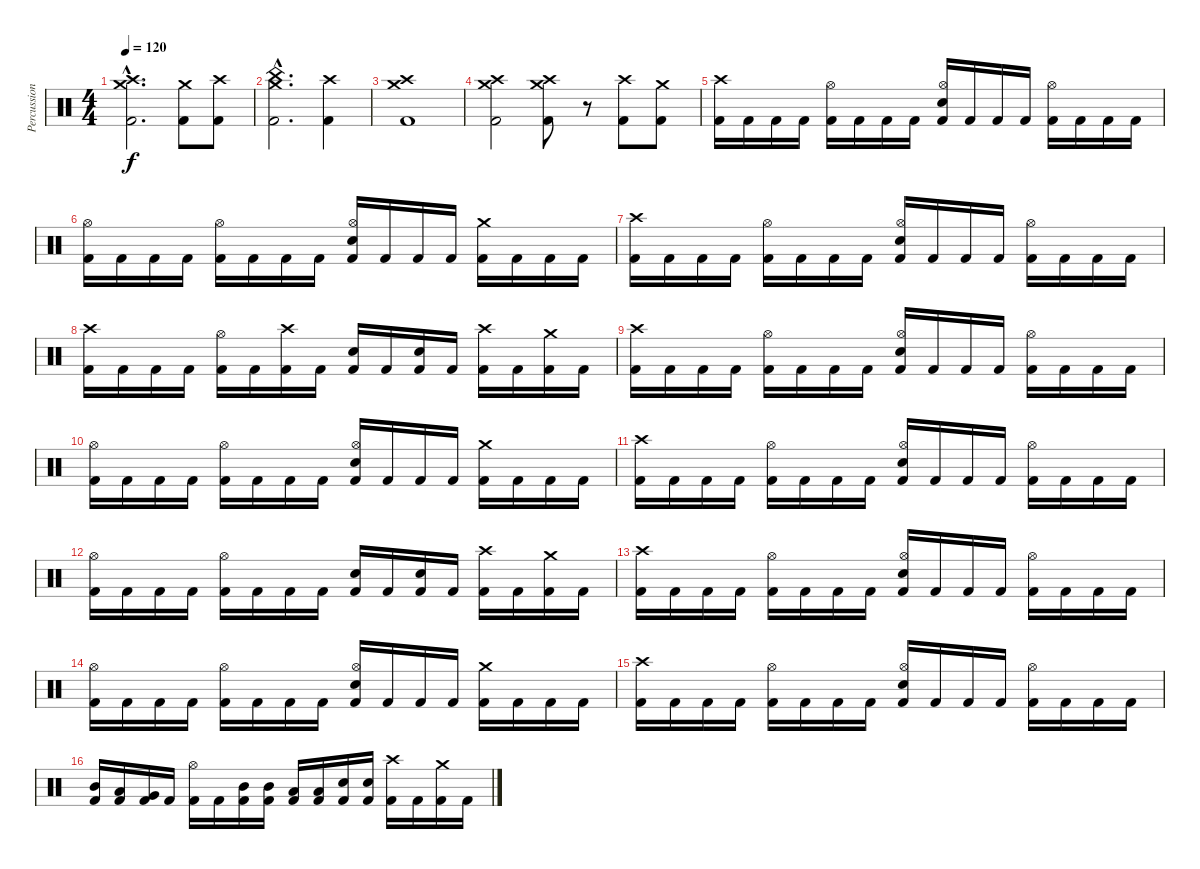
\track ("Percussion" "Percussion") {instrument percussion}
\staff {score}
\articulation defaults
\ts (4 4)
\tempo 120
\clef neutral
\ks c
("Crash medium (hit)"{hac} "Crash high (hit)"{hac} "Kick (hit) 2"{hac}).2{d dy f} ("Crash medium (hit)" "Kick (hit) 2").8 ("Crash high (hit)" "Kick (hit) 2").8 |
("China (hit)"{hac} "Crash medium (hit)"{hac} "Kick (hit) 2"{hac}).2{d} ("Crash high (hit)" "Kick (hit) 2").4 |
("Crash medium (hit)" "Crash high (hit)" "Kick (hit) 2").1 |
("Crash medium (hit)" "Crash high (hit)" "Kick (hit) 2").2 ("Crash medium (hit)" "Crash high (hit)" "Kick (hit) 2").8 r.8 ("Crash high (hit)" "Kick (hit) 2").8 ("Crash medium (hit)" "Kick (hit) 2").8 |
("Crash high (hit)" "Kick (hit) 2").16 "Kick (hit) 2".16 "Kick (hit) 2".16 "Kick (hit) 2".16 ("Hi-Hat (open)" "Kick (hit) 2").16 "Kick (hit) 2".16 "Kick (hit) 2".16 "Kick (hit) 2".16 ("Hi-Hat (open)" "Electric Snare (hit)" "Kick (hit) 2").16 "Kick (hit) 2".16 "Kick (hit) 2".16 "Kick (hit) 2".16 ("Hi-Hat (open)" "Kick (hit) 2").16 "Kick (hit) 2".16 "Kick (hit) 2".16 "Kick (hit) 2".16 |
("Hi-Hat (open)" "Kick (hit) 2").16 "Kick (hit) 2".16 "Kick (hit) 2".16 "Kick (hit) 2".16 ("Hi-Hat (open)" "Kick (hit) 2").16 "Kick (hit) 2".16 "Kick (hit) 2".16 "Kick (hit) 2".16 ("Hi-Hat (open)" "Electric Snare (hit)" "Kick (hit) 2").16 "Kick (hit) 2".16 "Kick (hit) 2".16 "Kick (hit) 2".16 ("Crash medium (hit)" "Kick (hit) 2").16 "Kick (hit) 2".16 "Kick (hit) 2".16 "Kick (hit) 2".16 |
("Crash high (hit)" "Kick (hit) 2").16 "Kick (hit) 2".16 "Kick (hit) 2".16 "Kick (hit) 2".16 ("Hi-Hat (open)" "Kick (hit) 2").16 "Kick (hit) 2".16 "Kick (hit) 2".16 "Kick (hit) 2".16 ("Hi-Hat (open)" "Electric Snare (hit)" "Kick (hit) 2").16 "Kick (hit) 2".16 "Kick (hit) 2".16 "Kick (hit) 2".16 ("Hi-Hat (open)" "Kick (hit) 2").16 "Kick (hit) 2".16 "Kick (hit) 2".16 "Kick (hit) 2".16 |
("Crash high (hit)" "Kick (hit) 2").16 "Kick (hit) 2".16 "Kick (hit) 2".16 "Kick (hit) 2".16 ("Hi-Hat (open)" "Kick (hit) 2").16 "Kick (hit) 2".16 ("Crash high (hit)" "Kick (hit) 2").16 "Kick (hit) 2".16 ("Electric Snare (hit)" "Kick (hit) 2").16 "Kick (hit) 2".16 ("Electric Snare (hit)" "Kick (hit) 2").16 "Kick (hit) 2".16 ("Crash high (hit)" "Kick (hit) 2").16 "Kick (hit) 2".16 ("Crash medium (hit)" "Kick (hit) 2").16 "Kick (hit) 2".16 |
("Crash high (hit)" "Kick (hit) 2").16 "Kick (hit) 2".16 "Kick (hit) 2".16 "Kick (hit) 2".16 ("Hi-Hat (open)" "Kick (hit) 2").16 "Kick (hit) 2".16 "Kick (hit) 2".16 "Kick (hit) 2".16 ("Hi-Hat (open)" "Electric Snare (hit)" "Kick (hit) 2").16 "Kick (hit) 2".16 "Kick (hit) 2".16 "Kick (hit) 2".16 ("Hi-Hat (open)" "Kick (hit) 2").16 "Kick (hit) 2".16 "Kick (hit) 2".16 "Kick (hit) 2".16 |
("Hi-Hat (open)" "Kick (hit) 2").16 "Kick (hit) 2".16 "Kick (hit) 2".16 "Kick (hit) 2".16 ("Hi-Hat (open)" "Kick (hit) 2").16 "Kick (hit) 2".16 "Kick (hit) 2".16 "Kick (hit) 2".16 ("Hi-Hat (open)" "Electric Snare (hit)" "Kick (hit) 2").16 "Kick (hit) 2".16 "Kick (hit) 2".16 "Kick (hit) 2".16 ("Crash medium (hit)" "Kick (hit) 2").16 "Kick (hit) 2".16 "Kick (hit) 2".16 "Kick (hit) 2".16 |
("Crash high (hit)" "Kick (hit) 2").16 "Kick (hit) 2".16 "Kick (hit) 2".16 "Kick (hit) 2".16 ("Hi-Hat (open)" "Kick (hit) 2").16 "Kick (hit) 2".16 "Kick (hit) 2".16 "Kick (hit) 2".16 ("Hi-Hat (open)" "Electric Snare (hit)" "Kick (hit) 2").16 "Kick (hit) 2".16 "Kick (hit) 2".16 "Kick (hit) 2".16 ("Hi-Hat (open)" "Kick (hit) 2").16 "Kick (hit) 2".16 "Kick (hit) 2".16 "Kick (hit) 2".16 |
("Hi-Hat (open)" "Kick (hit) 2").16 "Kick (hit) 2".16 "Kick (hit) 2".16 "Kick (hit) 2".16 ("Hi-Hat (open)" "Kick (hit) 2").16 "Kick (hit) 2".16 "Kick (hit) 2".16 "Kick (hit) 2".16 ("Electric Snare (hit)" "Kick (hit) 2").16 "Kick (hit) 2".16 ("Electric Snare (hit)" "Kick (hit) 2").16 "Kick (hit) 2".16 ("Crash high (hit)" "Kick (hit) 2").16 "Kick (hit) 2".16 ("Crash medium (hit)" "Kick (hit) 2").16 "Kick (hit) 2".16 |
("Crash high (hit)" "Kick (hit) 2").16 "Kick (hit) 2".16 "Kick (hit) 2".16 "Kick (hit) 2".16 ("Hi-Hat (open)" "Kick (hit) 2").16 "Kick (hit) 2".16 "Kick (hit) 2".16 "Kick (hit) 2".16 ("Hi-Hat (open)" "Electric Snare (hit)" "Kick (hit) 2").16 "Kick (hit) 2".16 "Kick (hit) 2".16 "Kick (hit) 2".16 ("Hi-Hat (open)" "Kick (hit) 2").16 "Kick (hit) 2".16 "Kick (hit) 2".16 "Kick (hit) 2".16 |
("Hi-Hat (open)" "Kick (hit) 2").16 "Kick (hit) 2".16 "Kick (hit) 2".16 "Kick (hit) 2".16 ("Hi-Hat (open)" "Kick (hit) 2").16 "Kick (hit) 2".16 "Kick (hit) 2".16 "Kick (hit) 2".16 ("Hi-Hat (open)" "Electric Snare (hit)" "Kick (hit) 2").16 "Kick (hit) 2".16 "Kick (hit) 2".16 "Kick (hit) 2".16 ("Crash medium (hit)" "Kick (hit) 2").16 "Kick (hit) 2".16 "Kick (hit) 2".16 "Kick (hit) 2".16 |
("Crash high (hit)" "Kick (hit) 2").16 "Kick (hit) 2".16 "Kick (hit) 2".16 "Kick (hit) 2".16 ("Hi-Hat (open)" "Kick (hit) 2").16 "Kick (hit) 2".16 "Kick (hit) 2".16 "Kick (hit) 2".16 ("Hi-Hat (open)" "Electric Snare (hit)" "Kick (hit) 2").16 "Kick (hit) 2".16 "Kick (hit) 2".16 "Kick (hit) 2".16 ("Hi-Hat (open)" "Kick (hit) 2").16 "Kick (hit) 2".16 "Kick (hit) 2".16 "Kick (hit) 2".16 |
("Mid Tom (hit)" "Kick (hit) 2").16 ("Low Tom (hit)" "Kick (hit) 2").16 ("Very Low Tom (hit)" "Kick (hit) 2").16 "Kick (hit) 2".16 ("Hi-Hat (open)" "Kick (hit) 2").16 "Kick (hit) 2".16 ("Mid Tom (hit)" "Kick (hit) 2").16 ("Mid Tom (hit)" "Kick (hit) 2").16 ("Low Tom (hit)" "Kick (hit) 2").16 ("Low Tom (hit)" "Kick (hit) 2").16 ("Electric Snare (hit)" "Kick (hit) 2").16 ("Electric Snare (hit)" "Kick (hit) 2").16 ("Crash high (hit)" "Kick (hit) 2").16 "Kick (hit) 2".16 ("Crash medium (hit)" "Kick (hit) 2").16 "Kick (hit) 2".16
